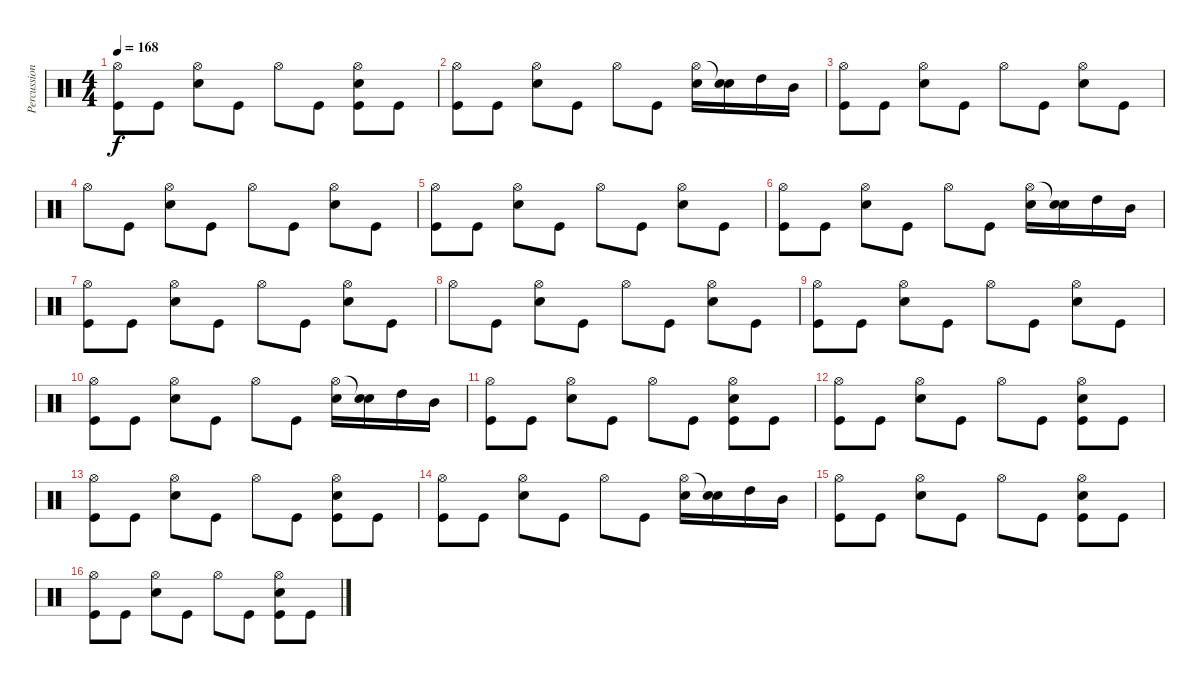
\track ("Percussions" "Percussion") {instrument percussion}
\staff {score}
\articulation defaults
\ts (4 4)
\tempo 168
\clef neutral
\ks c
("Hi-Hat (open)" "Kick (hit)").8{dy f} "Kick (hit)".8 ("Hi-Hat (open)" "Snare (hit) 2").8 "Kick (hit)".8 "Hi-Hat (open)".8 "Kick (hit)".8 ("Hi-Hat (open)" "Kick (hit)" "Snare (hit) 2").8 "Kick (hit)".8 |
("Hi-Hat (open)" "Kick (hit)").8 "Kick (hit)".8 ("Hi-Hat (open)" "Snare (hit) 2").8 "Kick (hit)".8 "Hi-Hat (open)".8 "Kick (hit)".8 ("Hi-Hat (open)" "Snare (hit) 2").16 ("Snare (hit)"{t} "Snare (hit) 2").16 "High Tom (hit)".16 "Mid Tom (hit)".16 |
("Hi-Hat (open)" "Kick (hit)").8 "Kick (hit)".8 ("Hi-Hat (open)" "Snare (hit) 2").8 "Kick (hit)".8 "Hi-Hat (open)".8 "Kick (hit)".8 ("Hi-Hat (open)" "Snare (hit) 2").8 "Kick (hit)".8 |
"Hi-Hat (open)".8 "Kick (hit)".8 ("Hi-Hat (open)" "Snare (hit) 2").8 "Kick (hit)".8 "Hi-Hat (open)".8 "Kick (hit)".8 ("Hi-Hat (open)" "Snare (hit) 2").8 "Kick (hit)".8 |
("Hi-Hat (open)" "Kick (hit)").8 "Kick (hit)".8 ("Hi-Hat (open)" "Snare (hit) 2").8 "Kick (hit)".8 "Hi-Hat (open)".8 "Kick (hit)".8 ("Hi-Hat (open)" "Snare (hit) 2").8 "Kick (hit)".8 |
("Hi-Hat (open)" "Kick (hit)").8 "Kick (hit)".8 ("Hi-Hat (open)" "Snare (hit) 2").8 "Kick (hit)".8 "Hi-Hat (open)".8 "Kick (hit)".8 ("Hi-Hat (open)" "Snare (hit) 2").16 ("Snare (hit)"{t} "Snare (hit) 2").16 "High Tom (hit)".16 "Mid Tom (hit)".16 |
("Hi-Hat (open)" "Kick (hit)").8 "Kick (hit)".8 ("Hi-Hat (open)" "Snare (hit) 2").8 "Kick (hit)".8 "Hi-Hat (open)".8 "Kick (hit)".8 ("Hi-Hat (open)" "Snare (hit) 2").8 "Kick (hit)".8 |
"Hi-Hat (open)".8 "Kick (hit)".8 ("Hi-Hat (open)" "Snare (hit) 2").8 "Kick (hit)".8 "Hi-Hat (open)".8 "Kick (hit)".8 ("Hi-Hat (open)" "Snare (hit) 2").8 "Kick (hit)".8 |
("Hi-Hat (open)" "Kick (hit)").8 "Kick (hit)".8 ("Hi-Hat (open)" "Snare (hit) 2").8 "Kick (hit)".8 "Hi-Hat (open)".8 "Kick (hit)".8 ("Hi-Hat (open)" "Snare (hit) 2").8 "Kick (hit)".8 |
("Hi-Hat (open)" "Kick (hit)").8 "Kick (hit)".8 ("Hi-Hat (open)" "Snare (hit) 2").8 "Kick (hit)".8 "Hi-Hat (open)".8 "Kick (hit)".8 ("Hi-Hat (open)" "Snare (hit) 2").16 ("Snare (hit)"{t} "Snare (hit) 2").16 "High Tom (hit)".16 "Mid Tom (hit)".16 |
("Hi-Hat (open)" "Kick (hit)").8 "Kick (hit)".8 ("Hi-Hat (open)" "Snare (hit) 2").8 "Kick (hit)".8 "Hi-Hat (open)".8 "Kick (hit)".8 ("Hi-Hat (open)" "Kick (hit)" "Snare (hit) 2").8 "Kick (hit)".8 |
("Hi-Hat (open)" "Kick (hit)").8 "Kick (hit)".8 ("Hi-Hat (open)" "Snare (hit) 2").8 "Kick (hit)".8 "Hi-Hat (open)".8 "Kick (hit)".8 ("Hi-Hat (open)" "Kick (hit)" "Snare (hit) 2").8 "Kick (hit)".8 |
("Hi-Hat (open)" "Kick (hit)").8 "Kick (hit)".8 ("Hi-Hat (open)" "Snare (hit) 2").8 "Kick (hit)".8 "Hi-Hat (open)".8 "Kick (hit)".8 ("Hi-Hat (open)" "Kick (hit)" "Snare (hit) 2").8 "Kick (hit)".8 |
("Hi-Hat (open)" "Kick (hit)").8 "Kick (hit)".8 ("Hi-Hat (open)" "Snare (hit) 2").8 "Kick (hit)".8 "Hi-Hat (open)".8 "Kick (hit)".8 ("Hi-Hat (open)" "Snare (hit) 2").16 ("Snare (hit)"{t} "Snare (hit) 2").16 "High Tom (hit)".16 "Mid Tom (hit)".16 |
("Hi-Hat (open)" "Kick (hit)").8 "Kick (hit)".8 ("Hi-Hat (open)" "Snare (hit) 2").8 "Kick (hit)".8 "Hi-Hat (open)".8 "Kick (hit)".8 ("Hi-Hat (open)" "Kick (hit)" "Snare (hit) 2").8 "Kick (hit)".8 |
("Hi-Hat (open)" "Kick (hit)").8 "Kick (hit)".8 ("Hi-Hat (open)" "Snare (hit) 2").8 "Kick (hit)".8 "Hi-Hat (open)".8 "Kick (hit)".8 ("Hi-Hat (open)" "Kick (hit)" "Snare (hit) 2").8 "Kick (hit)".8
